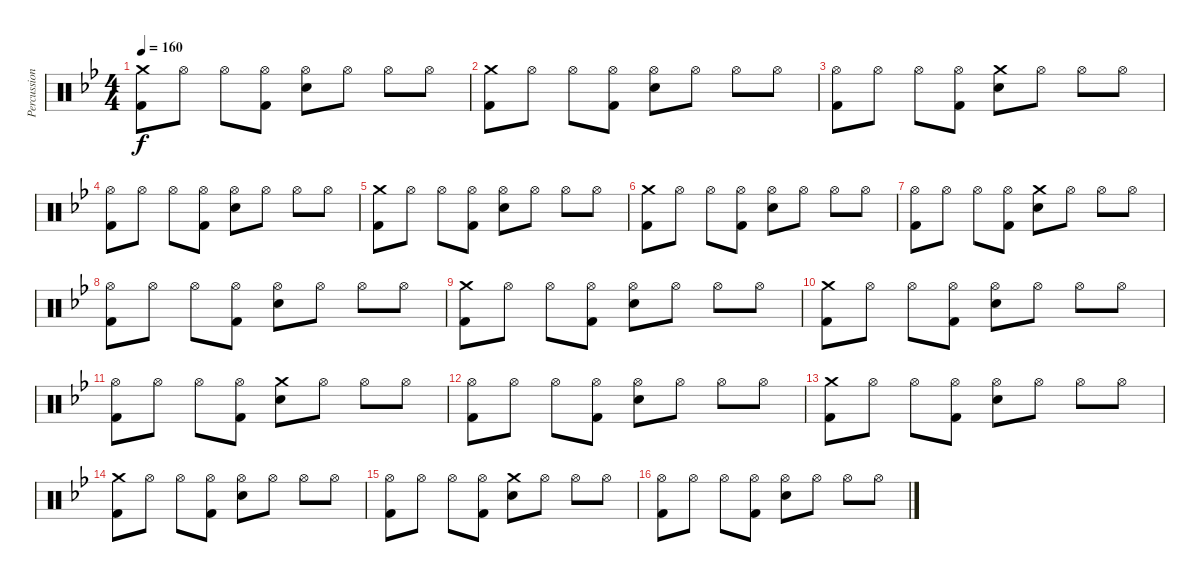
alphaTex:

\track ("Percussions" "Percussion") {instrument percussion}
\staff {score}
\articulation defaults
\ts (4 4)
\tempo 160
\clef neutral
\ks bb
("Crash medium (hit)" "Kick (hit) 2").8{dy f} "Hi-Hat (open)".8 "Hi-Hat (open)".8 ("Hi-Hat (open)" "Kick (hit) 2").8 ("Hi-Hat (open)" "Snare (hit) 2").8 "Hi-Hat (open)".8 "Hi-Hat (open)".8 "Hi-Hat (open)".8 |
("Crash medium (hit)" "Kick (hit) 2").8 "Hi-Hat (open)".8 "Hi-Hat (open)".8 ("Hi-Hat (open)" "Kick (hit) 2").8 ("Hi-Hat (open)" "Snare (hit) 2").8 "Hi-Hat (open)".8 "Hi-Hat (open)".8 "Hi-Hat (open)".8 |
("Hi-Hat (open)" "Kick (hit) 2").8 "Hi-Hat (open)".8 "Hi-Hat (open)".8 ("Hi-Hat (open)" "Kick (hit) 2").8 ("Crash medium (hit)" "Snare (hit) 2").8 "Hi-Hat (open)".8 "Hi-Hat (open)".8 "Hi-Hat (open)".8 |
("Hi-Hat (open)" "Kick (hit) 2").8 "Hi-Hat (open)".8 "Hi-Hat (open)".8 ("Hi-Hat (open)" "Kick (hit) 2").8 ("Hi-Hat (open)" "Snare (hit) 2").8 "Hi-Hat (open)".8 "Hi-Hat (open)".8 "Hi-Hat (open)".8 |
("Crash medium (hit)" "Kick (hit) 2").8 "Hi-Hat (open)".8 "Hi-Hat (open)".8 ("Hi-Hat (open)" "Kick (hit) 2").8 ("Hi-Hat (open)" "Snare (hit) 2").8 "Hi-Hat (open)".8 "Hi-Hat (open)".8 "Hi-Hat (open)".8 |
("Crash medium (hit)" "Kick (hit) 2").8 "Hi-Hat (open)".8 "Hi-Hat (open)".8 ("Hi-Hat (open)" "Kick (hit) 2").8 ("Hi-Hat (open)" "Snare (hit) 2").8 "Hi-Hat (open)".8 "Hi-Hat (open)".8 "Hi-Hat (open)".8 |
("Hi-Hat (open)" "Kick (hit) 2").8 "Hi-Hat (open)".8 "Hi-Hat (open)".8 ("Hi-Hat (open)" "Kick (hit) 2").8 ("Crash medium (hit)" "Snare (hit) 2").8 "Hi-Hat (open)".8 "Hi-Hat (open)".8 "Hi-Hat (open)".8 |
("Hi-Hat (open)" "Kick (hit) 2").8 "Hi-Hat (open)".8 "Hi-Hat (open)".8 ("Hi-Hat (open)" "Kick (hit) 2").8 ("Hi-Hat (open)" "Snare (hit) 2").8 "Hi-Hat (open)".8 "Hi-Hat (open)".8 "Hi-Hat (open)".8 |
("Crash medium (hit)" "Kick (hit) 2").8 "Hi-Hat (open)".8 "Hi-Hat (open)".8 ("Hi-Hat (open)" "Kick (hit) 2").8 ("Hi-Hat (open)" "Snare (hit) 2").8 "Hi-Hat (open)".8 "Hi-Hat (open)".8 "Hi-Hat (open)".8 |
("Crash medium (hit)" "Kick (hit) 2").8 "Hi-Hat (open)".8 "Hi-Hat (open)".8 ("Hi-Hat (open)" "Kick (hit) 2").8 ("Hi-Hat (open)" "Snare (hit) 2").8 "Hi-Hat (open)".8 "Hi-Hat (open)".8 "Hi-Hat (open)".8 |
("Hi-Hat (open)" "Kick (hit) 2").8 "Hi-Hat (open)".8 "Hi-Hat (open)".8 ("Hi-Hat (open)" "Kick (hit) 2").8 ("Crash medium (hit)" "Snare (hit) 2").8 "Hi-Hat (open)".8 "Hi-Hat (open)".8 "Hi-Hat (open)".8 |
("Hi-Hat (open)" "Kick (hit) 2").8 "Hi-Hat (open)".8 "Hi-Hat (open)".8 ("Hi-Hat (open)" "Kick (hit) 2").8 ("Hi-Hat (open)" "Snare (hit) 2").8 "Hi-Hat (open)".8 "Hi-Hat (open)".8 "Hi-Hat (open)".8 |
("Crash medium (hit)" "Kick (hit) 2").8 "Hi-Hat (open)".8 "Hi-Hat (open)".8 ("Hi-Hat (open)" "Kick (hit) 2").8 ("Hi-Hat (open)" "Snare (hit) 2").8 "Hi-Hat (open)".8 "Hi-Hat (open)".8 "Hi-Hat (open)".8 |
("Crash medium (hit)" "Kick (hit) 2").8 "Hi-Hat (open)".8 "Hi-Hat (open)".8 ("Hi-Hat (open)" "Kick (hit) 2").8 ("Hi-Hat (open)" "Snare (hit) 2").8 "Hi-Hat (open)".8 "Hi-Hat (open)".8 "Hi-Hat (open)".8 |
("Hi-Hat (open)" "Kick (hit) 2").8 "Hi-Hat (open)".8 "Hi-Hat (open)".8 ("Hi-Hat (open)" "Kick (hit) 2").8 ("Crash medium (hit)" "Snare (hit) 2").8 "Hi-Hat (open)".8 "Hi-Hat (open)".8 "Hi-Hat (open)".8 |
("Hi-Hat (open)" "Kick (hit) 2").8 "Hi-Hat (open)".8 "Hi-Hat (open)".8 ("Hi-Hat (open)" "Kick (hit) 2").8 ("Hi-Hat (open)" "Snare (hit) 2").8 "Hi-Hat (open)".8 "Hi-Hat (open)".8 "Hi-Hat (open)".8
